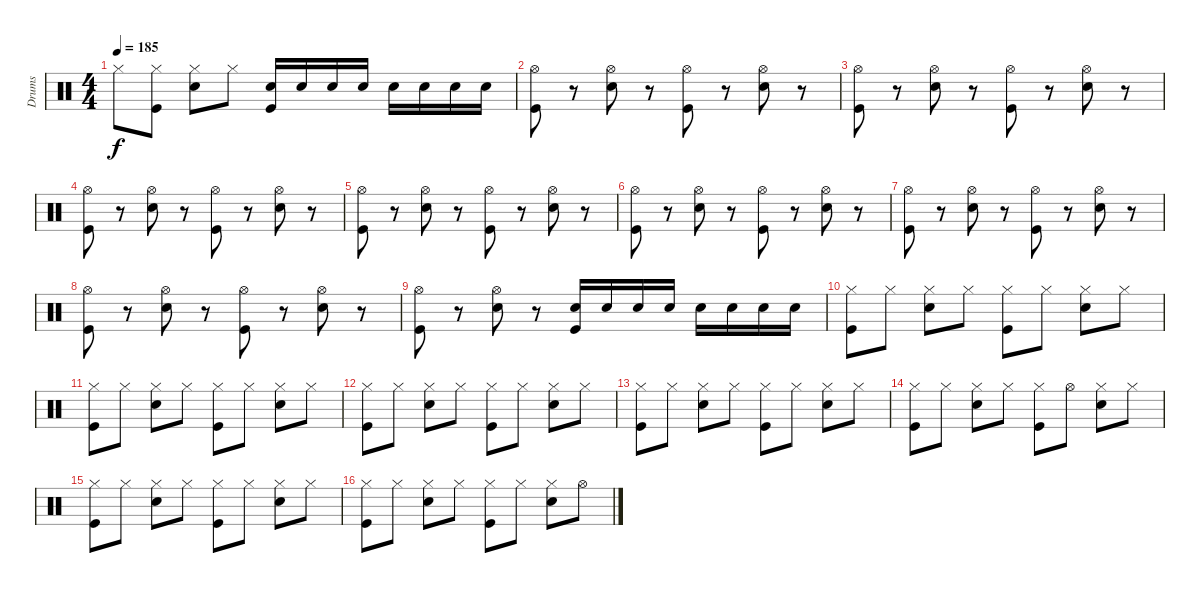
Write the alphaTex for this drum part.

\track ("Drums" "Drums") {instrument percussion}
\staff {score}
\articulation defaults
\ts (4 4)
\tempo 185
\clef neutral
\ks c "Hi-Hat (closed)".8{dy f}
("Kick (hit)" "Hi-Hat (closed)").8 ("Electric Snare (hit)" "Hi-Hat (closed)").8 "Hi-Hat (closed)".8 ("Electric Snare (hit)" "Kick (hit)").16 "Electric Snare (hit)".16 "Electric Snare (hit)".16 "Electric Snare (hit)".16 "Electric Snare (hit)".16 "Electric Snare (hit)".16 "Electric Snare (hit)".16 "Electric Snare (hit)".16 |
("Hi-Hat (open)" "Kick (hit)").8 r.8 ("Hi-Hat (open)" "Electric Snare (hit)").8 r.8 ("Hi-Hat (open)" "Kick (hit)").8 r.8 ("Hi-Hat (open)" "Electric Snare (hit)").8 r.8 |
("Hi-Hat (open)" "Kick (hit)").8 r.8 ("Hi-Hat (open)" "Electric Snare (hit)").8 r.8 ("Hi-Hat (open)" "Kick (hit)").8 r.8 ("Hi-Hat (open)" "Electric Snare (hit)").8 r.8 |
("Hi-Hat (open)" "Kick (hit)").8 r.8 ("Hi-Hat (open)" "Electric Snare (hit)").8 r.8 ("Hi-Hat (open)" "Kick (hit)").8 r.8 ("Hi-Hat (open)" "Electric Snare (hit)").8 r.8 |
("Hi-Hat (open)" "Kick (hit)").8 r.8 ("Hi-Hat (open)" "Electric Snare (hit)").8 r.8 ("Hi-Hat (open)" "Kick (hit)").8 r.8 ("Hi-Hat (open)" "Electric Snare (hit)").8 r.8 |
("Hi-Hat (open)" "Kick (hit)").8 r.8 ("Hi-Hat (open)" "Electric Snare (hit)").8 r.8 ("Hi-Hat (open)" "Kick (hit)").8 r.8 ("Hi-Hat (open)" "Electric Snare (hit)").8 r.8 |
("Kick (hit)" "Hi-Hat (open)").8 r.8 ("Electric Snare (hit)" "Hi-Hat (open)").8 r.8 ("Kick (hit)" "Hi-Hat (open)").8 r.8 ("Hi-Hat (open)" "Electric Snare (hit)").8 r.8 |
("Kick (hit)" "Hi-Hat (open)").8 r.8 ("Hi-Hat (open)" "Electric Snare (hit)").8 r.8 ("Kick (hit)" "Hi-Hat (open)").8 r.8 ("Electric Snare (hit)" "Hi-Hat (open)").8 r.8 |
("Hi-Hat (open)" "Kick (hit)").8 r.8 ("Hi-Hat (open)" "Electric Snare (hit)").8 r.8 ("Electric Snare (hit)" "Kick (hit)").16 "Electric Snare (hit)".16 "Electric Snare (hit)".16 "Electric Snare (hit)".16 "Electric Snare (hit)".16 "Electric Snare (hit)".16 "Electric Snare (hit)".16 "Electric Snare (hit)".16 |
("Hi-Hat (closed)" "Kick (hit)").8 "Hi-Hat (closed)".8 ("Electric Snare (hit)" "Hi-Hat (closed)").8 "Hi-Hat (closed)".8 ("Hi-Hat (closed)" "Kick (hit)").8 "Hi-Hat (closed)".8 ("Hi-Hat (closed)" "Electric Snare (hit)").8 "Hi-Hat (closed)".8 |
("Hi-Hat (closed)" "Kick (hit)").8 "Hi-Hat (closed)".8 ("Electric Snare (hit)" "Hi-Hat (closed)").8 "Hi-Hat (closed)".8 ("Kick (hit)" "Hi-Hat (closed)").8 "Hi-Hat (closed)".8 ("Electric Snare (hit)" "Hi-Hat (closed)").8 "Hi-Hat (closed)".8 |
("Hi-Hat (closed)" "Kick (hit)").8 "Hi-Hat (closed)".8 ("Electric Snare (hit)" "Hi-Hat (closed)").8 "Hi-Hat (closed)".8 ("Kick (hit)" "Hi-Hat (closed)").8 "Hi-Hat (closed)".8 ("Hi-Hat (closed)" "Electric Snare (hit)").8 "Hi-Hat (closed)".8 |
("Hi-Hat (closed)" "Kick (hit)").8 "Hi-Hat (closed)".8 ("Hi-Hat (closed)" "Electric Snare (hit)").8 "Hi-Hat (closed)".8 ("Kick (hit)" "Hi-Hat (closed)").8 "Hi-Hat (closed)".8 ("Hi-Hat (closed)" "Electric Snare (hit)").8 "Hi-Hat (closed)".8 |
("Hi-Hat (closed)" "Kick (hit)").8 "Hi-Hat (closed)".8 ("Hi-Hat (closed)" "Electric Snare (hit)").8 "Hi-Hat (closed)".8 ("Hi-Hat (closed)" "Kick (hit)").8 "Hi-Hat (open)".8 ("Hi-Hat (closed)" "Electric Snare (hit)").8 "Hi-Hat (closed)".8 |
("Hi-Hat (closed)" "Kick (hit)").8 "Hi-Hat (closed)".8 ("Hi-Hat (closed)" "Electric Snare (hit)").8 "Hi-Hat (closed)".8 ("Kick (hit)" "Hi-Hat (closed)").8 "Hi-Hat (closed)".8 ("Hi-Hat (closed)" "Electric Snare (hit)").8 "Hi-Hat (closed)".8 |
("Hi-Hat (closed)" "Kick (hit)").8 "Hi-Hat (closed)".8 ("Hi-Hat (closed)" "Electric Snare (hit)").8 "Hi-Hat (closed)".8 ("Hi-Hat (closed)" "Kick (hit)").8 "Hi-Hat (closed)".8 ("Hi-Hat (closed)" "Electric Snare (hit)").8 "Hi-Hat (open)".8
